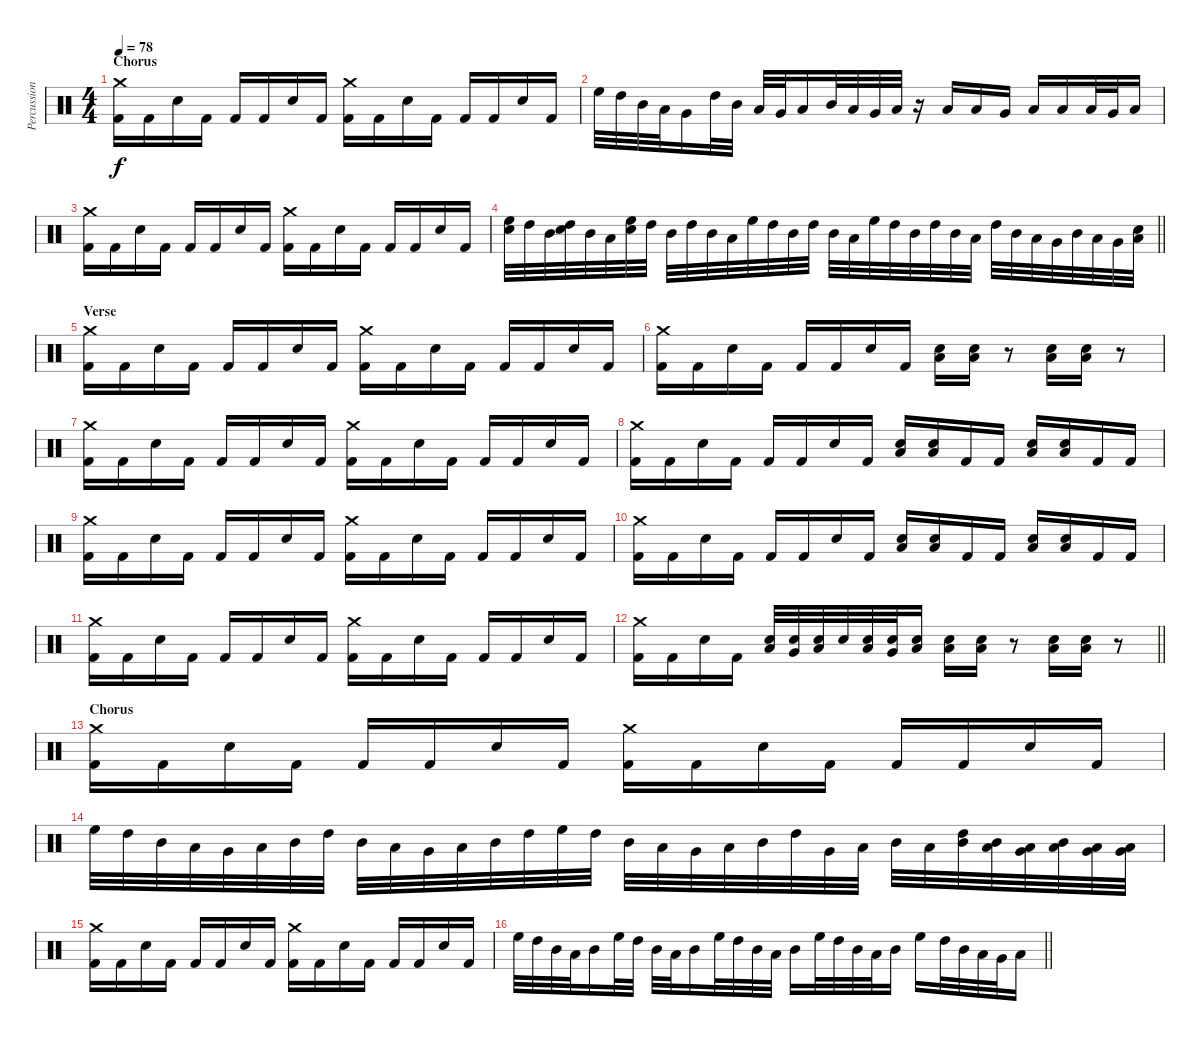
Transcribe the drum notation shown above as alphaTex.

\track ("Percussion" "Percussion") {instrument percussion}
\staff {score}
\articulation defaults
\ts (4 4)
\section ("" "Chorus")
\tempo 78
\clef neutral
\ks c
("Crash medium (hit)" "Kick (hit) 2").16{dy f} "Kick (hit) 2".16 "Snare (hit) 2".16 "Kick (hit) 2".16 "Kick (hit) 2".16 "Kick (hit) 2".16 "Snare (hit) 2".16 "Kick (hit) 2".16 ("Crash medium (hit)" "Kick (hit) 2").16 "Kick (hit) 2".16 "Snare (hit) 2".16 "Kick (hit) 2".16 "Kick (hit) 2".16 "Kick (hit) 2".16 "Snare (hit) 2".16 "Kick (hit) 2".16{balance 16} |
"High Floor Tom (hit)".32{balance 0} "High Tom (hit)".32 "Mid Tom (hit)".32 "Low Tom (hit)".32 "Very Low Tom (hit)".16 "High Tom (hit)".32 "Mid Tom (hit)".32 "Low Tom (hit)".32 "Very Low Tom (hit)".32 "Low Floor Tom (hit)".16 "Mid Tom (hit)".32 "Low Tom (hit)".32 "Very Low Tom (hit)".32 "Low Floor Tom (hit)".32 r.16 "Low Floor Tom (hit)".16 "Low Tom (hit)".16 "Very Low Tom (hit)".16 "Low Floor Tom (hit)".16 "Low Floor Tom (hit)".16 "Low Tom (hit)".32 "Very Low Tom (hit)".32 "Low Floor Tom (hit)".16 |
("Crash medium (hit)" "Kick (hit) 2").16 "Kick (hit) 2".16 "Snare (hit) 2".16 "Kick (hit) 2".16 "Kick (hit) 2".16 "Kick (hit) 2".16 "Snare (hit) 2".16 "Kick (hit) 2".16 ("Crash medium (hit)" "Kick (hit) 2").16 "Kick (hit) 2".16 "Snare (hit) 2".16 "Kick (hit) 2".16 "Kick (hit) 2".16 "Kick (hit) 2".16 "Snare (hit) 2".16 "Kick (hit) 2".16 |
\barLineRight lightlight
("High Floor Tom (hit)" "Electric Snare (hit)").32 "High Tom (hit)".32 "Mid Tom (hit)".32 ("High Tom (hit)" "Electric Snare (hit)").32 "Mid Tom (hit)".32 "Low Tom (hit)".32 ("High Floor Tom (hit)" "Electric Snare (hit)").32 "High Tom (hit)".32 "Mid Tom (hit)".32 "High Tom (hit)".32 "Mid Tom (hit)".32 "Low Tom (hit)".32 "High Floor Tom (hit)".32 "High Tom (hit)".32 "Mid Tom (hit)".32 "High Tom (hit)".32 "Mid Tom (hit)".32 "Low Tom (hit)".32 "High Floor Tom (hit)".32 "High Tom (hit)".32 "Mid Tom (hit)".32 "High Tom (hit)".32 "Mid Tom (hit)".32 "Low Tom (hit)".32 "High Tom (hit)".32 "Mid Tom (hit)".32 "Low Tom (hit)".32 "Very Low Tom (hit)".32 "Mid Tom (hit)".32 "Low Tom (hit)".32 "Very Low Tom (hit)".32 ("Low Floor Tom (hit)" "Electric Snare (hit)").32 |
\section ("" "Verse")
("Crash medium (hit)" "Kick (hit) 2").16 "Kick (hit) 2".16 "Snare (hit) 2".16 "Kick (hit) 2".16 "Kick (hit) 2".16 "Kick (hit) 2".16 "Snare (hit) 2".16 "Kick (hit) 2".16 ("Crash medium (hit)" "Kick (hit) 2").16 "Kick (hit) 2".16 "Snare (hit) 2".16 "Kick (hit) 2".16 "Kick (hit) 2".16 "Kick (hit) 2".16 "Snare (hit) 2".16 "Kick (hit) 2".16 |
("Crash medium (hit)" "Kick (hit) 2").16 "Kick (hit) 2".16 "Snare (hit) 2".16 "Kick (hit) 2".16 "Kick (hit) 2".16 "Kick (hit) 2".16 "Snare (hit) 2".16 "Kick (hit) 2".16 ("Electric Snare (hit)" "Low Tom (hit)").16 ("Electric Snare (hit)" "Low Tom (hit)").16 r.8 ("Electric Snare (hit)" "Low Floor Tom (hit)").16 ("Electric Snare (hit)" "Low Floor Tom (hit)").16 r.8 |
("Crash medium (hit)" "Kick (hit) 2").16 "Kick (hit) 2".16 "Snare (hit) 2".16 "Kick (hit) 2".16 "Kick (hit) 2".16 "Kick (hit) 2".16 "Snare (hit) 2".16 "Kick (hit) 2".16 ("Crash medium (hit)" "Kick (hit) 2").16 "Kick (hit) 2".16 "Snare (hit) 2".16 "Kick (hit) 2".16 "Kick (hit) 2".16 "Kick (hit) 2".16 "Snare (hit) 2".16 "Kick (hit) 2".16 |
("Crash medium (hit)" "Kick (hit) 2").16 "Kick (hit) 2".16 "Snare (hit) 2".16 "Kick (hit) 2".16 "Kick (hit) 2".16 "Kick (hit) 2".16 "Snare (hit) 2".16 "Kick (hit) 2".16 ("Electric Snare (hit)" "Low Tom (hit)").16 ("Electric Snare (hit)" "Low Tom (hit)").16 "Kick (hit) 2".16 "Kick (hit) 2".16 ("Electric Snare (hit)" "Low Floor Tom (hit)").16 ("Electric Snare (hit)" "Low Floor Tom (hit)").16 "Kick (hit) 2".16 "Kick (hit) 2".16 |
("Crash medium (hit)" "Kick (hit) 2").16 "Kick (hit) 2".16 "Snare (hit) 2".16 "Kick (hit) 2".16 "Kick (hit) 2".16 "Kick (hit) 2".16 "Snare (hit) 2".16 "Kick (hit) 2".16 ("Crash medium (hit)" "Kick (hit) 2").16 "Kick (hit) 2".16 "Snare (hit) 2".16 "Kick (hit) 2".16 "Kick (hit) 2".16 "Kick (hit) 2".16 "Snare (hit) 2".16 "Kick (hit) 2".16 |
("Crash medium (hit)" "Kick (hit) 2").16 "Kick (hit) 2".16 "Snare (hit) 2".16 "Kick (hit) 2".16 "Kick (hit) 2".16 "Kick (hit) 2".16 "Snare (hit) 2".16 "Kick (hit) 2".16 ("Electric Snare (hit)" "Low Tom (hit)").16 ("Electric Snare (hit)" "Low Tom (hit)").16 "Kick (hit) 2".16 "Kick (hit) 2".16 ("Electric Snare (hit)" "Low Floor Tom (hit)").16 ("Electric Snare (hit)" "Low Floor Tom (hit)").16 "Kick (hit) 2".16 "Kick (hit) 2".16 |
("Crash medium (hit)" "Kick (hit) 2").16 "Kick (hit) 2".16 "Snare (hit) 2".16 "Kick (hit) 2".16 "Kick (hit) 2".16 "Kick (hit) 2".16 "Snare (hit) 2".16 "Kick (hit) 2".16 ("Crash medium (hit)" "Kick (hit) 2").16 "Kick (hit) 2".16 "Snare (hit) 2".16 "Kick (hit) 2".16 "Kick (hit) 2".16 "Kick (hit) 2".16 "Snare (hit) 2".16 "Kick (hit) 2".16 |
\barLineRight lightlight
("Crash medium (hit)" "Kick (hit) 2").16 "Kick (hit) 2".16 "Snare (hit) 2".16 "Kick (hit) 2".16 ("Snare (hit) 2" "Low Tom (hit)").32 ("Snare (hit) 2" "Very Low Tom (hit)").32 ("Snare (hit) 2" "Low Floor Tom (hit)").32 "Snare (hit) 2".32 ("Snare (hit) 2" "Low Tom (hit)").32 ("Snare (hit) 2" "Very Low Tom (hit)").32 ("Snare (hit) 2" "Low Floor Tom (hit)").16 ("Electric Snare (hit)" "Low Tom (hit)").16 ("Electric Snare (hit)" "Low Tom (hit)").16 r.8 ("Electric Snare (hit)" "Low Floor Tom (hit)").16 ("Electric Snare (hit)" "Low Floor Tom (hit)").16 r.8 |
\section ("" "Chorus")
("Crash medium (hit)" "Kick (hit) 2").16 "Kick (hit) 2".16 "Snare (hit) 2".16 "Kick (hit) 2".16 "Kick (hit) 2".16 "Kick (hit) 2".16 "Snare (hit) 2".16 "Kick (hit) 2".16 ("Crash medium (hit)" "Kick (hit) 2").16 "Kick (hit) 2".16 "Snare (hit) 2".16 "Kick (hit) 2".16 "Kick (hit) 2".16 "Kick (hit) 2".16 "Snare (hit) 2".16 "Kick (hit) 2".16 |
"High Floor Tom (hit)".32 "High Tom (hit)".32 "Mid Tom (hit)".32 "Low Tom (hit)".32 "Very Low Tom (hit)".32 "Low Tom (hit)".32 "Mid Tom (hit)".32 "High Tom (hit)".32 "Mid Tom (hit)".32 "Low Tom (hit)".32 "Very Low Tom (hit)".32 "Low Tom (hit)".32 "Mid Tom (hit)".32 "High Tom (hit)".32 "High Floor Tom (hit)".32 "High Tom (hit)".32 "Mid Tom (hit)".32 "Low Tom (hit)".32 "Very Low Tom (hit)".32 "Low Tom (hit)".32 "Mid Tom (hit)".32 "High Tom (hit)".32 "Very Low Tom (hit)".32 "Low Tom (hit)".32 "Mid Tom (hit)".32 "Low Tom (hit)".32 ("High Tom (hit)" "Mid Tom (hit)").32 ("Mid Tom (hit)" "Low Tom (hit)").32 ("Low Tom (hit)" "Very Low Tom (hit)").32 ("Mid Tom (hit)" "Low Tom (hit)").32 ("Low Tom (hit)" "Very Low Tom (hit)").32 ("Very Low Tom (hit)" "Low Floor Tom (hit)").32 |
("Crash medium (hit)" "Kick (hit) 2").16 "Kick (hit) 2".16 "Snare (hit) 2".16 "Kick (hit) 2".16 "Kick (hit) 2".16 "Kick (hit) 2".16 "Snare (hit) 2".16 "Kick (hit) 2".16 ("Crash medium (hit)" "Kick (hit) 2").16 "Kick (hit) 2".16 "Snare (hit) 2".16 "Kick (hit) 2".16 "Kick (hit) 2".16 "Kick (hit) 2".16 "Snare (hit) 2".16 "Kick (hit) 2".16 |
\barLineRight lightlight "High Floor Tom (hit)".32 "High Tom (hit)".32 "Mid Tom (hit)".32 "Low Tom (hit)".32 "Mid Tom (hit)".16 "High Floor Tom (hit)".32 "High Tom (hit)".32 "Mid Tom (hit)".32 "Low Tom (hit)".32 "Mid Tom (hit)".16 "High Floor Tom (hit)".32 "High Tom (hit)".32 "Mid Tom (hit)".32 "Low Tom (hit)".32 "Mid Tom (hit)".16 "High Floor Tom (hit)".32 "High Tom (hit)".32 "Mid Tom (hit)".32 "Low Tom (hit)".32 "Mid Tom (hit)".16 "High Floor Tom (hit)".16 "High Tom (hit)".32 "Mid Tom (hit)".32 "Low Tom (hit)".32 "Very Low Tom (hit)".32 "Low Floor Tom (hit)".16
